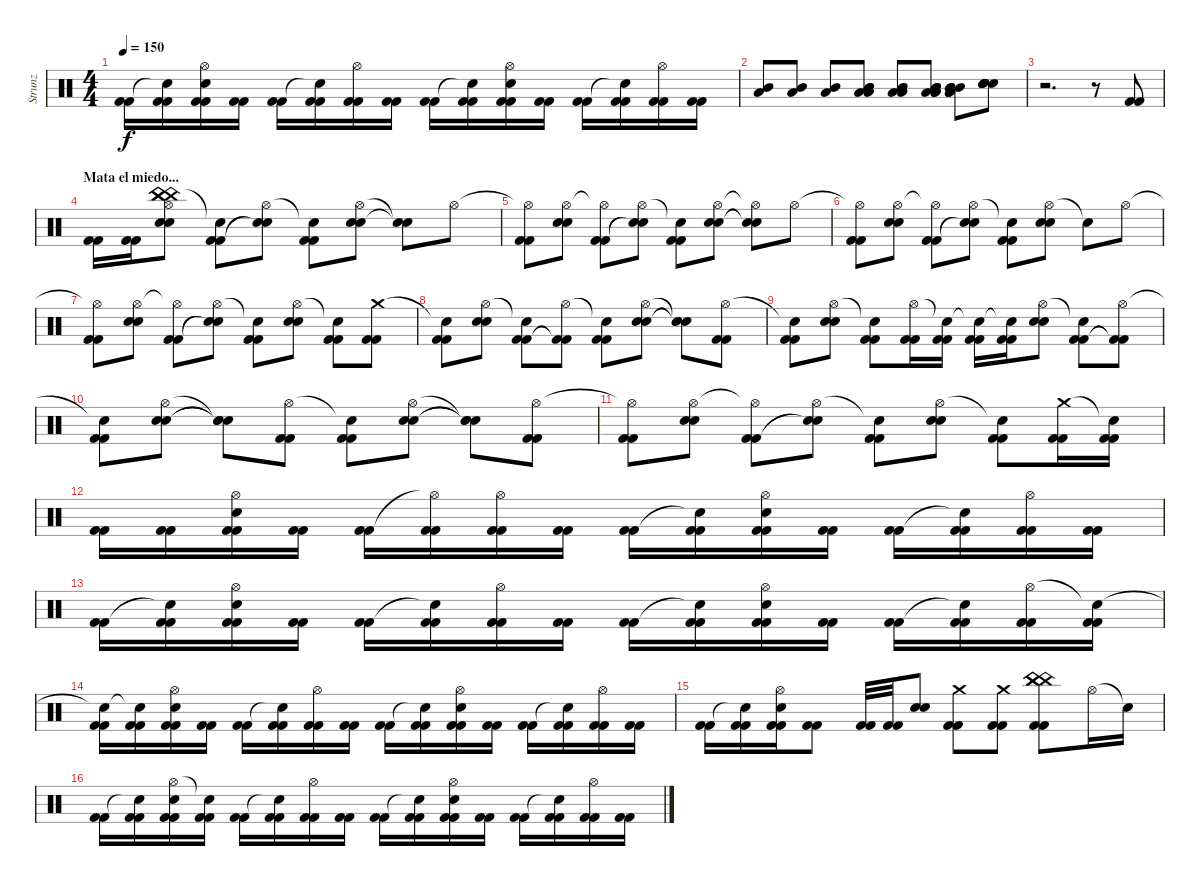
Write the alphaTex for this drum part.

\track ("Strunz" "Strunz") {instrument percussion}
\staff {score}
\articulation defaults
\ts (4 4)
\tempo 150
\clef neutral
\ks c
("Kick (hit) 2" "Kick (hit) 2").16{dy f} ("Snare (hit)"{t} "Kick (hit) 2" "Kick (hit) 2").16 ("Hi-Hat (open)" "Snare (hit) 2" "Kick (hit) 2" "Kick (hit) 2").16 ("Kick (hit) 2" "Kick (hit) 2").16 ("Kick (hit) 2" "Kick (hit) 2").16 ("Snare (hit)"{t} "Kick (hit) 2" "Kick (hit) 2").16 ("Hi-Hat (open)" "Kick (hit) 2" "Kick (hit) 2").16 ("Kick (hit) 2" "Kick (hit) 2").16 ("Kick (hit) 2" "Kick (hit) 2").16 ("Snare (hit)"{t} "Kick (hit) 2" "Kick (hit) 2").16 ("Hi-Hat (open)" "Snare (hit) 2" "Kick (hit) 2" "Kick (hit) 2").16 ("Kick (hit) 2" "Kick (hit) 2").16 ("Kick (hit) 2" "Kick (hit) 2").16 ("Snare (hit)"{t} "Kick (hit) 2" "Kick (hit) 2").16 ("Hi-Hat (open)" "Kick (hit) 2" "Kick (hit) 2").16 ("Kick (hit) 2" "Kick (hit) 2").16 |
("Mid Tom (hit)" "Low Tom (hit)").8 ("Mid Tom (hit)" "Low Tom (hit)").8 ("Mid Tom (hit)" "Low Tom (hit)").8 ("Low Tom (hit)" "Low Tom (hit)" "Mid Tom (hit)" "Mid Tom (hit)").8 ("Low Tom (hit)" "Low Tom (hit)" "Mid Tom (hit)" "Mid Tom (hit)").8 ("Low Tom (hit)" "Low Tom (hit)" "Low Tom (hit)" "Mid Tom (hit)" "Mid Tom (hit)" "Mid Tom (hit)").8 ("Low Tom (hit)" "Low Tom (hit)" "Low Tom (hit)" "Mid Tom (hit)" "Mid Tom (hit)" "Mid Tom (hit)").8 ("Snare (hit) 2" "Snare (hit) 2" "Snare (hit) 2" "Snare (hit) 2" "Snare (hit) 2" "Snare (hit) 2").8 |
r.2{d} r.8 ("Kick (hit) 2" "Kick (hit) 2").8 |
\section ("" "Mata el miedo...")
("Kick (hit) 2" "Kick (hit) 2").16 ("Kick (hit) 2" "Kick (hit) 2").16 ("China (hit)" "Hi-Hat (open)" "China (hit)" "Snare (hit) 2" "Snare (hit) 2" "China (hit)").8 ("Snare (hit)"{t} "Kick (hit) 2" "Kick (hit) 2").8 ("Hi-Hat (open)" "Snare (hit)"{t} "Snare (hit)"{t}).8 ("Snare (hit)"{t} "Kick (hit) 2" "Kick (hit) 2").8 ("Hi-Hat (open)" "Snare (hit) 2" "Snare (hit) 2").8 ("Snare (hit)"{t} "Snare (hit)"{t}).8 "Hi-Hat (open)".8 |
("Hi-Hat (open)"{t} "Kick (hit) 2" "Kick (hit) 2").8 ("Hi-Hat (open)" "Snare (hit) 2" "Snare (hit) 2").8 ("Hi-Hat (open)"{t} "Kick (hit) 2" "Kick (hit) 2").8 ("Hi-Hat (open)" "Snare (hit)"{t} "Snare (hit)"{t}).8 ("Snare (hit)"{t} "Kick (hit) 2" "Kick (hit) 2").8 ("Hi-Hat (open)" "Snare (hit) 2" "Snare (hit) 2").8 ("Hi-Hat (open)"{t} "Snare (hit)"{t} "Snare (hit)"{t}).8 "Hi-Hat (open)".8 |
("Hi-Hat (open)"{t} "Kick (hit) 2" "Kick (hit) 2").8 ("Hi-Hat (open)" "Snare (hit) 2" "Snare (hit) 2").8 ("Hi-Hat (open)"{t} "Kick (hit) 2" "Kick (hit) 2").8 ("Hi-Hat (open)" "Snare (hit)"{t} "Snare (hit)"{t}).8 ("Snare (hit)"{t} "Kick (hit) 2" "Kick (hit) 2").8 ("Hi-Hat (open)" "Snare (hit) 2" "Snare (hit) 2").8 "Snare (hit)"{t}.8 "Hi-Hat (open)".8 |
("Hi-Hat (open)"{t} "Kick (hit) 2" "Kick (hit) 2").8 ("Hi-Hat (open)" "Snare (hit) 2" "Snare (hit) 2").8 ("Hi-Hat (open)"{t} "Kick (hit) 2" "Kick (hit) 2").8 ("Hi-Hat (open)" "Snare (hit)"{t} "Snare (hit)"{t}).8 ("Snare (hit)"{t} "Kick (hit) 2" "Kick (hit) 2").8 ("Hi-Hat (open)" "Snare (hit) 2" "Snare (hit) 2").8 ("Snare (hit)"{t} "Kick (hit) 2" "Kick (hit) 2").8 ("Crash medium (hit)" "Kick (hit) 2" "Kick (hit) 2").8 |
("Snare (hit)"{t} "Kick (hit) 2" "Kick (hit) 2").8 ("Hi-Hat (open)" "Snare (hit) 2" "Snare (hit) 2").8 ("Snare (hit)"{t} "Kick (hit) 2" "Kick (hit) 2").8 ("Hi-Hat (open)" "Kick (hit) 2"{t} "Kick (hit) 2"{t}).8 ("Snare (hit)"{t} "Kick (hit) 2" "Kick (hit) 2").8 ("Hi-Hat (open)" "Snare (hit) 2" "Snare (hit) 2").8 ("Snare (hit)"{t} "Snare (hit) 2"{t} "Snare (hit) 2"{t}).8 ("Hi-Hat (open)" "Kick (hit) 2" "Kick (hit) 2").8 |
("Snare (hit)"{t} "Kick (hit) 2" "Kick (hit) 2").8 ("Hi-Hat (open)" "Snare (hit) 2" "Snare (hit) 2").8 ("Snare (hit)"{t} "Kick (hit) 2" "Kick (hit) 2").8 ("Hi-Hat (open)" "Kick (hit) 2" "Kick (hit) 2").16 ("Snare (hit)"{t} "Kick (hit) 2" "Kick (hit) 2").16 ("Snare (hit)"{t} "Kick (hit) 2" "Kick (hit) 2").16 ("Snare (hit)"{t} "Kick (hit) 2" "Kick (hit) 2").16 ("Hi-Hat (open)" "Snare (hit) 2" "Snare (hit) 2").8 ("Snare (hit)"{t} "Kick (hit) 2" "Kick (hit) 2").8 ("Hi-Hat (open)" "Kick (hit) 2"{t} "Kick (hit) 2"{t}).8 |
("Snare (hit)"{t} "Kick (hit) 2" "Kick (hit) 2").8 ("Hi-Hat (open)" "Snare (hit) 2" "Snare (hit) 2").8 ("Snare (hit)"{t} "Snare (hit) 2"{t} "Snare (hit) 2"{t}).8 ("Hi-Hat (open)" "Kick (hit) 2" "Kick (hit) 2").8 ("Snare (hit)"{t} "Kick (hit) 2" "Kick (hit) 2").8 ("Hi-Hat (open)" "Snare (hit) 2" "Snare (hit) 2").8 ("Snare (hit)"{t} "Snare (hit)"{t} "Snare (hit)"{t}).8 ("Hi-Hat (open)" "Kick (hit) 2" "Kick (hit) 2").8 |
("Hi-Hat (open)"{t} "Kick (hit) 2" "Kick (hit) 2").8 ("Hi-Hat (open)" "Snare (hit) 2" "Snare (hit) 2").8 ("Hi-Hat (open)"{t} "Kick (hit) 2" "Kick (hit) 2").8 ("Hi-Hat (open)" "Snare (hit)"{t} "Snare (hit)"{t}).8 ("Snare (hit)"{t} "Kick (hit) 2" "Kick (hit) 2").8 ("Hi-Hat (open)" "Snare (hit) 2" "Snare (hit) 2").8 ("Snare (hit)"{t} "Kick (hit) 2" "Kick (hit) 2").8 ("Crash medium (hit)" "Kick (hit) 2" "Kick (hit) 2").16 ("Snare (hit)"{t} "Kick (hit) 2" "Kick (hit) 2").16 |
("Kick (hit) 2" "Kick (hit) 2").16 ("Kick (hit) 2" "Kick (hit) 2").16 ("Hi-Hat (open)" "Snare (hit) 2" "Kick (hit) 2" "Kick (hit) 2").16 ("Kick (hit) 2" "Kick (hit) 2").16 ("Kick (hit) 2" "Kick (hit) 2").16 ("Hi-Hat (open)"{t} "Kick (hit) 2" "Kick (hit) 2").16 ("Hi-Hat (open)" "Kick (hit) 2" "Kick (hit) 2").16 ("Kick (hit) 2" "Kick (hit) 2").16 ("Kick (hit) 2" "Kick (hit) 2").16 ("Snare (hit)"{t} "Kick (hit) 2" "Kick (hit) 2").16 ("Hi-Hat (open)" "Snare (hit) 2" "Kick (hit) 2" "Kick (hit) 2").16 ("Kick (hit) 2" "Kick (hit) 2").16 ("Kick (hit) 2" "Kick (hit) 2").16 ("Snare (hit)"{t} "Kick (hit) 2" "Kick (hit) 2").16 ("Hi-Hat (open)" "Kick (hit) 2" "Kick (hit) 2").16 ("Kick (hit) 2" "Kick (hit) 2").16 |
("Kick (hit) 2" "Kick (hit) 2").16 ("Snare (hit)"{t} "Kick (hit) 2" "Kick (hit) 2").16 ("Hi-Hat (open)" "Snare (hit) 2" "Kick (hit) 2" "Kick (hit) 2").16 ("Kick (hit) 2" "Kick (hit) 2").16 ("Kick (hit) 2" "Kick (hit) 2").16 ("Snare (hit)"{t} "Kick (hit) 2" "Kick (hit) 2").16 ("Hi-Hat (open)" "Kick (hit) 2" "Kick (hit) 2").16 ("Kick (hit) 2" "Kick (hit) 2").16 ("Kick (hit) 2" "Kick (hit) 2").16 ("Snare (hit)"{t} "Kick (hit) 2" "Kick (hit) 2").16 ("Hi-Hat (open)" "Snare (hit) 2" "Kick (hit) 2" "Kick (hit) 2").16 ("Kick (hit) 2" "Kick (hit) 2").16 ("Kick (hit) 2" "Kick (hit) 2").16 ("Snare (hit)"{t} "Kick (hit) 2" "Kick (hit) 2").16 ("Hi-Hat (open)" "Kick (hit) 2" "Kick (hit) 2").16 ("Snare (hit)"{t} "Kick (hit) 2" "Kick (hit) 2").16 |
("Snare (hit)"{t} "Kick (hit) 2" "Kick (hit) 2").16 ("Snare (hit)"{t} "Kick (hit) 2" "Kick (hit) 2").16 ("Hi-Hat (open)" "Snare (hit) 2" "Kick (hit) 2" "Kick (hit) 2").16 ("Kick (hit) 2" "Kick (hit) 2").16 ("Kick (hit) 2" "Kick (hit) 2").16 ("Snare (hit)"{t} "Kick (hit) 2" "Kick (hit) 2").16 ("Hi-Hat (open)" "Kick (hit) 2" "Kick (hit) 2").16 ("Kick (hit) 2" "Kick (hit) 2").16 ("Kick (hit) 2" "Kick (hit) 2").16 ("Snare (hit)"{t} "Kick (hit) 2" "Kick (hit) 2").16 ("Hi-Hat (open)" "Snare (hit) 2" "Kick (hit) 2" "Kick (hit) 2").16 ("Kick (hit) 2" "Kick (hit) 2").16 ("Kick (hit) 2" "Kick (hit) 2").16 ("Snare (hit)"{t} "Kick (hit) 2" "Kick (hit) 2").16 ("Hi-Hat (open)" "Kick (hit) 2" "Kick (hit) 2").16 ("Kick (hit) 2" "Kick (hit) 2").16 |
("Kick (hit) 2" "Kick (hit) 2").16 ("Snare (hit)"{t} "Kick (hit) 2" "Kick (hit) 2").16 ("Hi-Hat (open)" "Snare (hit) 2" "Kick (hit) 2" "Kick (hit) 2").16 ("Kick (hit) 2" "Kick (hit) 2").8 ("Kick (hit) 2" "Kick (hit) 2").32 ("Kick (hit) 2" "Kick (hit) 2").32 ("Snare (hit) 2" "Snare (hit) 2").8 ("Crash medium (hit)" "Kick (hit) 2" "Kick (hit) 2").8 ("Crash medium (hit)" "Kick (hit) 2" "Kick (hit) 2").8 ("China (hit)" "China (hit)" "China (hit)" "Kick (hit) 2" "Kick (hit) 2").8 "Hi-Hat (open)".16 "Snare (hit)"{t}.16 |
("Kick (hit) 2" "Kick (hit) 2").16 ("Snare (hit)"{t} "Kick (hit) 2" "Kick (hit) 2").16 ("Hi-Hat (open)" "Snare (hit) 2" "Kick (hit) 2" "Kick (hit) 2").16 ("Snare (hit)"{t} "Kick (hit) 2" "Kick (hit) 2").16 ("Kick (hit) 2" "Kick (hit) 2").16 ("Snare (hit)"{t} "Kick (hit) 2" "Kick (hit) 2").16 ("Hi-Hat (open)" "Kick (hit) 2" "Kick (hit) 2").16 ("Kick (hit) 2" "Kick (hit) 2").16 ("Kick (hit) 2" "Kick (hit) 2").16 ("Snare (hit)"{t} "Kick (hit) 2" "Kick (hit) 2").16 ("Hi-Hat (open)" "Snare (hit) 2" "Kick (hit) 2" "Kick (hit) 2").16 ("Kick (hit) 2" "Kick (hit) 2").16 ("Kick (hit) 2" "Kick (hit) 2").16 ("Snare (hit)"{t} "Kick (hit) 2" "Kick (hit) 2").16 ("Hi-Hat (open)" "Kick (hit) 2" "Kick (hit) 2").16 ("Kick (hit) 2" "Kick (hit) 2").16
